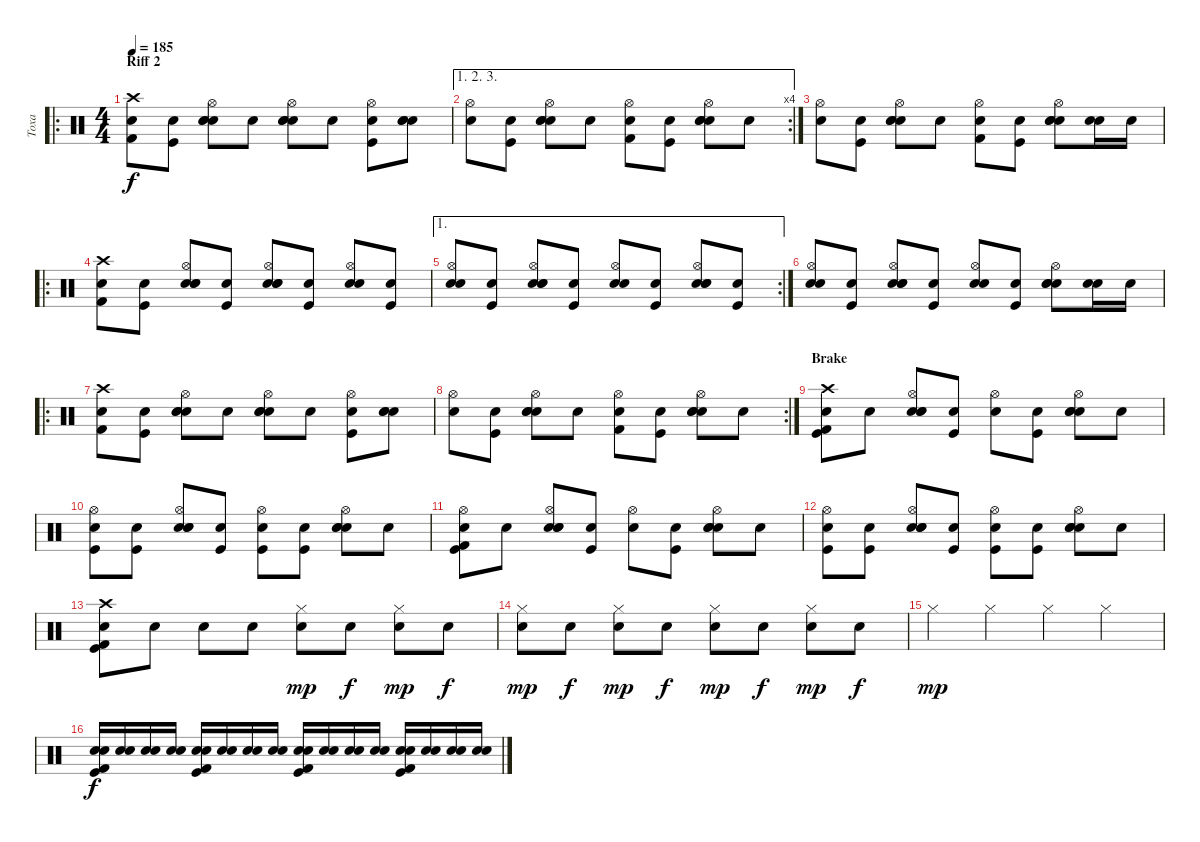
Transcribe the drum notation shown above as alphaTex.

\track ("Toxa" "Toxa") {instrument percussion}
\staff {score}
\articulation defaults
\ro
\ts (4 4)
\section ("" "Riff 2")
\tempo 185
\clef neutral
\ks c
("Crash high (hit)" "Kick (hit) 2" "Snare (hit)"{x}).8{dy f} ("Kick (hit)" "Snare (hit)"{x}).8 ("Hi-Hat (open)" "Electric Snare (hit)" "Snare (hit) 2" "Snare (hit)"{x}).8 "Snare (hit)"{x}.8 ("Hi-Hat (open)" "Electric Snare (hit)" "Snare (hit) 2" "Snare (hit)"{x}).8 "Snare (hit)"{x}.8 ("Hi-Hat (open)" "Kick (hit)" "Snare (hit)"{x}).8 ("Electric Snare (hit)" "Snare (hit) 2" "Snare (hit)"{x}).8 |
\ae (1 2 3)
\rc 4
("Hi-Hat (open)" "Snare (hit)"{x}).8 ("Kick (hit)" "Snare (hit)"{x}).8 ("Hi-Hat (open)" "Electric Snare (hit)" "Snare (hit) 2" "Snare (hit)"{x}).8 "Snare (hit)"{x}.8 ("Hi-Hat (open)" "Kick (hit) 2" "Snare (hit)"{x}).8 ("Kick (hit)" "Snare (hit)"{x}).8 ("Hi-Hat (open)" "Electric Snare (hit)" "Snare (hit) 2" "Snare (hit)"{x}).8 "Snare (hit)"{x}.8 |
("Hi-Hat (open)" "Snare (hit)"{x}).8 ("Kick (hit)" "Snare (hit)"{x}).8 ("Hi-Hat (open)" "Electric Snare (hit)" "Snare (hit) 2" "Snare (hit)"{x}).8 "Snare (hit)"{x}.8 ("Hi-Hat (open)" "Kick (hit) 2" "Snare (hit)"{x}).8 ("Kick (hit)" "Snare (hit)"{x}).8 ("Hi-Hat (open)" "Electric Snare (hit)" "Snare (hit) 2" "Snare (hit)"{x}).8 ("Electric Snare (hit)" "Snare (hit)"{x}).16 "Electric Snare (hit)".16 |
\ro
("Crash high (hit)" "Kick (hit) 2" "Snare (hit)"{x}).8 ("Kick (hit)" "Snare (hit)"{x}).8 ("Hi-Hat (open)" "Electric Snare (hit)" "Snare (hit) 2" "Snare (hit)"{x}).8 ("Kick (hit)" "Snare (hit)"{x}).8 ("Hi-Hat (open)" "Electric Snare (hit)" "Snare (hit) 2" "Snare (hit)"{x}).8 ("Kick (hit)" "Snare (hit)"{x}).8 ("Hi-Hat (open)" "Electric Snare (hit)" "Snare (hit)"{x}).8 ("Kick (hit)" "Snare (hit)"{x}).8 |
\ae 1
\rc 2
("Hi-Hat (open)" "Electric Snare (hit)" "Snare (hit)"{x}).8 ("Kick (hit)" "Snare (hit)"{x}).8 ("Hi-Hat (open)" "Electric Snare (hit)" "Snare (hit) 2" "Snare (hit)"{x}).8 ("Kick (hit)" "Snare (hit)"{x}).8 ("Hi-Hat (open)" "Electric Snare (hit)" "Snare (hit)"{x}).8 ("Kick (hit)" "Snare (hit)"{x}).8 ("Hi-Hat (open)" "Electric Snare (hit)" "Snare (hit) 2" "Snare (hit)"{x}).8 ("Kick (hit)" "Snare (hit)"{x}).8 |
("Hi-Hat (open)" "Electric Snare (hit)" "Snare (hit)"{x}).8 ("Kick (hit)" "Snare (hit)"{x}).8 ("Hi-Hat (open)" "Electric Snare (hit)" "Snare (hit) 2" "Snare (hit)"{x}).8 ("Kick (hit)" "Snare (hit)"{x}).8 ("Hi-Hat (open)" "Electric Snare (hit)" "Snare (hit)"{x}).8 ("Kick (hit)" "Snare (hit)"{x}).8 ("Hi-Hat (open)" "Electric Snare (hit)" "Snare (hit) 2" "Snare (hit)"{x}).8 ("Electric Snare (hit)" "Snare (hit)"{x}).16 "Electric Snare (hit)".16 |
\ro
("Crash high (hit)" "Kick (hit) 2" "Snare (hit)"{x}).8 ("Kick (hit)" "Snare (hit)"{x}).8 ("Hi-Hat (open)" "Electric Snare (hit)" "Snare (hit) 2" "Snare (hit)"{x}).8 "Snare (hit)"{x}.8 ("Hi-Hat (open)" "Electric Snare (hit)" "Snare (hit) 2" "Snare (hit)"{x}).8 "Snare (hit)"{x}.8 ("Hi-Hat (open)" "Kick (hit)" "Snare (hit)"{x}).8 ("Electric Snare (hit)" "Snare (hit) 2" "Snare (hit)"{x}).8 |
\rc 2
("Hi-Hat (open)" "Snare (hit)"{x}).8 ("Kick (hit)" "Snare (hit)"{x}).8 ("Hi-Hat (open)" "Electric Snare (hit)" "Snare (hit) 2" "Snare (hit)"{x}).8 "Snare (hit)"{x}.8 ("Hi-Hat (open)" "Kick (hit) 2" "Snare (hit)"{x}).8 ("Kick (hit)" "Snare (hit)"{x}).8 ("Hi-Hat (open)" "Electric Snare (hit)" "Snare (hit) 2" "Snare (hit)"{x}).8 "Snare (hit)"{x}.8 |
\section ("" "Brake")
("Kick (hit)" "Kick (hit) 2" "Crash high (hit)" "Snare (hit)"{x}).8 "Snare (hit)"{x}.8 ("Hi-Hat (open)" "Snare (hit) 2" "Electric Snare (hit)" "Snare (hit)"{x}).8 ("Kick (hit)" "Snare (hit)"{x}).8 ("Hi-Hat (open)" "Snare (hit)"{x}).8 ("Kick (hit)" "Snare (hit)"{x}).8 ("Hi-Hat (open)" "Electric Snare (hit)" "Snare (hit) 2" "Snare (hit)"{x}).8 "Snare (hit)"{x}.8 |
("Hi-Hat (open)" "Kick (hit)" "Snare (hit)"{x}).8 ("Kick (hit)" "Snare (hit)"{x}).8 ("Hi-Hat (open)" "Electric Snare (hit)" "Snare (hit) 2" "Snare (hit)"{x}).8 ("Kick (hit)" "Snare (hit)"{x}).8 ("Hi-Hat (open)" "Kick (hit)" "Snare (hit)"{x}).8 ("Kick (hit)" "Snare (hit)"{x}).8 ("Hi-Hat (open)" "Electric Snare (hit)" "Snare (hit) 2" "Snare (hit)"{x}).8 "Snare (hit)"{x}.8 |
("Kick (hit)" "Kick (hit) 2" "Hi-Hat (open)" "Snare (hit)"{x}).8 "Snare (hit)"{x}.8 ("Hi-Hat (open)" "Snare (hit) 2" "Electric Snare (hit)" "Snare (hit)"{x}).8 ("Kick (hit)" "Snare (hit)"{x}).8 ("Hi-Hat (open)" "Snare (hit)"{x}).8 ("Kick (hit)" "Snare (hit)"{x}).8 ("Hi-Hat (open)" "Electric Snare (hit)" "Snare (hit) 2" "Snare (hit)"{x}).8 "Snare (hit)"{x}.8 |
("Hi-Hat (open)" "Kick (hit)" "Snare (hit)"{x}).8 ("Kick (hit)" "Snare (hit)"{x}).8 ("Hi-Hat (open)" "Electric Snare (hit)" "Snare (hit) 2" "Snare (hit)"{x}).8 ("Kick (hit)" "Snare (hit)"{x}).8 ("Hi-Hat (open)" "Kick (hit)" "Snare (hit)"{x}).8 ("Kick (hit)" "Snare (hit)"{x}).8 ("Hi-Hat (open)" "Electric Snare (hit)" "Snare (hit) 2" "Snare (hit)"{x}).8 "Snare (hit)"{x}.8 |
("Kick (hit)" "Kick (hit) 2" "Crash high (hit)" "Snare (hit)"{x}).8 "Snare (hit)"{x}.8 "Snare (hit)"{x}.8 "Snare (hit)"{x}.8 ("Hi-Hat (closed)" "Snare (hit)"{x}).8{dy mp} "Snare (hit)"{x}.8{dy f} ("Hi-Hat (closed)" "Snare (hit)"{x}).8{dy mp} "Snare (hit)"{x}.8{dy f} |
("Hi-Hat (closed)" "Snare (hit)"{x}).8{dy mp} "Snare (hit)"{x}.8{dy f} ("Hi-Hat (closed)" "Snare (hit)"{x}).8{dy mp} "Snare (hit)"{x}.8{dy f} ("Hi-Hat (closed)" "Snare (hit)"{x}).8{dy mp} "Snare (hit)"{x}.8{dy f} ("Hi-Hat (closed)" "Snare (hit)"{x}).8{dy mp} "Snare (hit)"{x}.8{dy f} |
"Hi-Hat (closed)".4{dy mp} "Hi-Hat (closed)".4 "Hi-Hat (closed)".4 "Hi-Hat (closed)".4 |
("Kick (hit) 2" "Kick (hit)" "Electric Snare (hit)" "Snare (hit)"{x}).16{dy f} ("Electric Snare (hit)" "Snare (hit)"{x}).16 ("Electric Snare (hit)" "Snare (hit)"{x}).16 ("Electric Snare (hit)" "Snare (hit)"{x}).16 ("Kick (hit) 2" "Kick (hit)" "Electric Snare (hit)" "Snare (hit)"{x}).16 ("Electric Snare (hit)" "Snare (hit)"{x}).16 ("Electric Snare (hit)" "Snare (hit)"{x}).16 ("Electric Snare (hit)" "Snare (hit)"{x}).16 ("Kick (hit) 2" "Kick (hit)" "Electric Snare (hit)" "Snare (hit)"{x}).16 ("Electric Snare (hit)" "Snare (hit)"{x}).16 ("Electric Snare (hit)" "Snare (hit)"{x}).16 ("Electric Snare (hit)" "Snare (hit)"{x}).16 ("Kick (hit) 2" "Kick (hit)" "Electric Snare (hit)" "Snare (hit)"{x}).16 ("Electric Snare (hit)" "Snare (hit)"{x}).16 ("Electric Snare (hit)" "Snare (hit)"{x}).16 ("Electric Snare (hit)" "Snare (hit)"{x}).16
